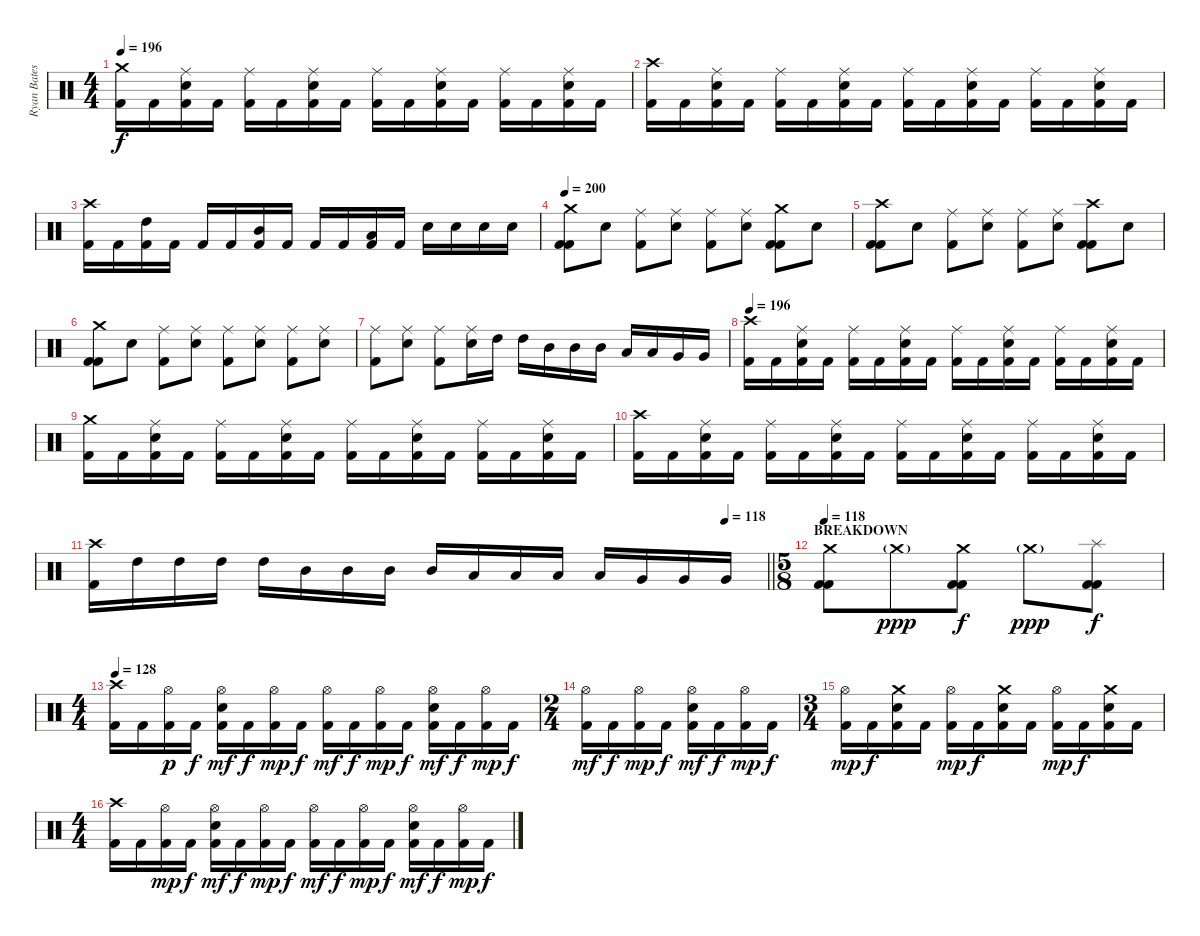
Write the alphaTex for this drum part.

\track ("Ryan Bates" "Ryan Bates") {instrument percussion}
\staff {score}
\articulation defaults
\ts (4 4)
\tempo 196
\clef neutral
\ks c
("Crash medium (hit)" "Kick (hit) 2").16{dy f} "Kick (hit) 2".16 ("Ride (middle)" "Electric Snare (hit)" "Kick (hit) 2").16 "Kick (hit) 2".16 ("Ride (middle)" "Kick (hit) 2").16 "Kick (hit) 2".16 ("Ride (middle)" "Electric Snare (hit)" "Kick (hit) 2").16 "Kick (hit) 2".16 ("Ride (middle)" "Kick (hit) 2").16 "Kick (hit) 2".16 ("Ride (middle)" "Electric Snare (hit)" "Kick (hit) 2").16 "Kick (hit) 2".16 ("Ride (middle)" "Kick (hit) 2").16 "Kick (hit) 2".16 ("Ride (middle)" "Electric Snare (hit)" "Kick (hit) 2").16 "Kick (hit) 2".16 |
("Crash high (hit)" "Kick (hit) 2").16 "Kick (hit) 2".16 ("Ride (middle)" "Electric Snare (hit)" "Kick (hit) 2").16 "Kick (hit) 2".16 ("Ride (middle)" "Kick (hit) 2").16 "Kick (hit) 2".16 ("Ride (middle)" "Electric Snare (hit)" "Kick (hit) 2").16 "Kick (hit) 2".16 ("Ride (middle)" "Kick (hit) 2").16 "Kick (hit) 2".16 ("Ride (middle)" "Electric Snare (hit)" "Kick (hit) 2").16 "Kick (hit) 2".16 ("Ride (middle)" "Kick (hit) 2").16 "Kick (hit) 2".16 ("Ride (middle)" "Electric Snare (hit)" "Kick (hit) 2").16 "Kick (hit) 2".16 |
("Crash high (hit)" "Kick (hit) 2").16 "Kick (hit) 2".16 ("High Tom (hit)" "Kick (hit) 2").16 "Kick (hit) 2".16 "Kick (hit) 2".16 "Kick (hit) 2".16 ("Mid Tom (hit)" "Kick (hit) 2").16 "Kick (hit) 2".16 "Kick (hit) 2".16 "Kick (hit) 2".16 ("Low Tom (hit)" "Kick (hit) 2").16 "Kick (hit) 2".16 "Electric Snare (hit)".16 "Electric Snare (hit)".16 "Electric Snare (hit)".16 "Electric Snare (hit)".16 |
\tempo 200
("Crash medium (hit)" "Kick (hit) 2" "Kick (hit) 2").8 "Electric Snare (hit)".8 ("Ride (middle)" "Kick (hit) 2").8 ("Ride (middle)" "Electric Snare (hit)").8 ("Ride (middle)" "Kick (hit) 2").8 ("Ride (middle)" "Electric Snare (hit)").8 ("Crash medium (hit)" "Kick (hit) 2" "Kick (hit) 2").8 "Electric Snare (hit)".8 |
("Crash high (hit)" "Kick (hit) 2" "Kick (hit) 2").8 "Electric Snare (hit)".8 ("Ride (middle)" "Kick (hit) 2").8 ("Ride (middle)" "Electric Snare (hit)").8 ("Ride (middle)" "Kick (hit) 2").8 ("Ride (middle)" "Electric Snare (hit)").8 ("Crash high (hit)" "Kick (hit) 2" "Kick (hit) 2").8 "Electric Snare (hit)".8 |
("Crash medium (hit)" "Kick (hit) 2" "Kick (hit) 2").8 "Electric Snare (hit)".8 ("Ride (middle)" "Kick (hit) 2").8 ("Ride (middle)" "Electric Snare (hit)").8 ("Ride (middle)" "Kick (hit) 2").8 ("Ride (middle)" "Electric Snare (hit)").8 ("Ride (middle)" "Kick (hit) 2").8 ("Ride (middle)" "Electric Snare (hit)").8 |
("Ride (middle)" "Kick (hit) 2").8 ("Ride (middle)" "Electric Snare (hit)").8 ("Ride (middle)" "Kick (hit) 2").8 ("Ride (middle)" "Electric Snare (hit)").16 "High Tom (hit)".16 "High Tom (hit)".16 "Mid Tom (hit)".16 "Mid Tom (hit)".16 "Mid Tom (hit)".16 "Low Tom (hit)".16 "Low Tom (hit)".16 "Very Low Tom (hit)".16 "Very Low Tom (hit)".16 |
\tempo 196
("Crash high (hit)" "Kick (hit) 2").16 "Kick (hit) 2".16 ("Ride (middle)" "Electric Snare (hit)" "Kick (hit) 2").16 "Kick (hit) 2".16 ("Ride (middle)" "Kick (hit) 2").16 "Kick (hit) 2".16 ("Ride (middle)" "Electric Snare (hit)" "Kick (hit) 2").16 "Kick (hit) 2".16 ("Ride (middle)" "Kick (hit) 2").16 "Kick (hit) 2".16 ("Ride (middle)" "Electric Snare (hit)" "Kick (hit) 2").16 "Kick (hit) 2".16 ("Ride (middle)" "Kick (hit) 2").16 "Kick (hit) 2".16 ("Ride (middle)" "Electric Snare (hit)" "Kick (hit) 2").16 "Kick (hit) 2".16 |
("Crash medium (hit)" "Kick (hit) 2").16 "Kick (hit) 2".16 ("Ride (middle)" "Electric Snare (hit)" "Kick (hit) 2").16 "Kick (hit) 2".16 ("Ride (middle)" "Kick (hit) 2").16 "Kick (hit) 2".16 ("Ride (middle)" "Electric Snare (hit)" "Kick (hit) 2").16 "Kick (hit) 2".16 ("Ride (middle)" "Kick (hit) 2").16 "Kick (hit) 2".16 ("Ride (middle)" "Electric Snare (hit)" "Kick (hit) 2").16 "Kick (hit) 2".16 ("Ride (middle)" "Kick (hit) 2").16 "Kick (hit) 2".16 ("Ride (middle)" "Electric Snare (hit)" "Kick (hit) 2").16 "Kick (hit) 2".16 |
("Crash high (hit)" "Kick (hit) 2").16 "Kick (hit) 2".16 ("Ride (middle)" "Electric Snare (hit)" "Kick (hit) 2").16 "Kick (hit) 2".16 ("Ride (middle)" "Kick (hit) 2").16 "Kick (hit) 2".16 ("Ride (middle)" "Electric Snare (hit)" "Kick (hit) 2").16 "Kick (hit) 2".16 ("Ride (middle)" "Kick (hit) 2").16 "Kick (hit) 2".16 ("Ride (middle)" "Electric Snare (hit)" "Kick (hit) 2").16 "Kick (hit) 2".16 ("Ride (middle)" "Kick (hit) 2").16 "Kick (hit) 2".16 ("Ride (middle)" "Electric Snare (hit)" "Kick (hit) 2").16 "Kick (hit) 2".16 |
\tempo (118 0.9375)
\barLineRight lightlight
("Crash high (hit)" "Kick (hit) 2").16 "High Tom (hit)".16 "High Tom (hit)".16 "High Tom (hit)".16 "High Tom (hit)".16 "Mid Tom (hit)".16 "Mid Tom (hit)".16 "Mid Tom (hit)".16 "Mid Tom (hit)".16 "Low Tom (hit)".16 "Low Tom (hit)".16 "Low Tom (hit)".16 "Low Tom (hit)".16 "Very Low Tom (hit)".16 "Very Low Tom (hit)".16 "Very Low Tom (hit)".16 |
\ts (5 8)
\section ("" "BREAKDOWN")
\tempo 118
("Crash medium (hit)" "Kick (hit) 2" "Kick (hit) 2").8 "Crash medium (hit)"{g}.8{dy ppp} ("Crash medium (hit)" "Kick (hit) 2" "Kick (hit) 2").8{dy f} "Crash medium (hit)"{g}.8{dy ppp} ("Splash (hit)" "Kick (hit) 2" "Kick (hit) 2").8{dy f} |
\ts (4 4)
\tempo 128
("Crash high (hit)" "Kick (hit) 2").16 "Kick (hit) 2".16 ("Hi-Hat (open)" "Kick (hit) 2").16{dy p} "Kick (hit) 2".16{dy f} ("Hi-Hat (open)" "Electric Snare (hit)" "Kick (hit) 2").16{dy mf} "Kick (hit) 2".16{dy f} ("Hi-Hat (open)" "Kick (hit) 2").16{dy mp} "Kick (hit) 2".16{dy f} ("Hi-Hat (open)" "Kick (hit) 2").16{dy mf} "Kick (hit) 2".16{dy f} ("Hi-Hat (open)" "Kick (hit) 2").16{dy mp} "Kick (hit) 2".16{dy f} ("Hi-Hat (open)" "Electric Snare (hit)" "Kick (hit) 2").16{dy mf} "Kick (hit) 2".16{dy f} ("Hi-Hat (open)" "Kick (hit) 2").16{dy mp} "Kick (hit) 2".16{dy f} |
\ts (2 4)
("Hi-Hat (open)" "Kick (hit) 2").16{dy mf} "Kick (hit) 2".16{dy f} ("Hi-Hat (open)" "Kick (hit) 2").16{dy mp} "Kick (hit) 2".16{dy f} ("Hi-Hat (open)" "Electric Snare (hit)" "Kick (hit) 2").16{dy mf} "Kick (hit) 2".16{dy f} ("Hi-Hat (open)" "Kick (hit) 2").16{dy mp} "Kick (hit) 2".16{dy f} |
\ts (3 4)
("Hi-Hat (open)" "Kick (hit) 2").16{dy mp} "Kick (hit) 2".16{dy f} ("Crash medium (hit)" "Electric Snare (hit)" "Kick (hit) 2").16 "Kick (hit) 2".16 ("Hi-Hat (open)" "Kick (hit) 2").16{dy mp} "Kick (hit) 2".16{dy f} ("Crash medium (hit)" "Electric Snare (hit)" "Kick (hit) 2").16 "Kick (hit) 2".16 ("Hi-Hat (open)" "Kick (hit) 2").16{dy mp} "Kick (hit) 2".16{dy f} ("Crash medium (hit)" "Electric Snare (hit)" "Kick (hit) 2").16 "Kick (hit) 2".16 |
\ts (4 4)
("Crash high (hit)" "Kick (hit) 2").16 "Kick (hit) 2".16 ("Hi-Hat (open)" "Kick (hit) 2").16{dy mp} "Kick (hit) 2".16{dy f} ("Hi-Hat (open)" "Electric Snare (hit)" "Kick (hit) 2").16{dy mf} "Kick (hit) 2".16{dy f} ("Hi-Hat (open)" "Kick (hit) 2").16{dy mp} "Kick (hit) 2".16{dy f} ("Hi-Hat (open)" "Kick (hit) 2").16{dy mf} "Kick (hit) 2".16{dy f} ("Hi-Hat (open)" "Kick (hit) 2").16{dy mp} "Kick (hit) 2".16{dy f} ("Hi-Hat (open)" "Electric Snare (hit)" "Kick (hit) 2").16{dy mf} "Kick (hit) 2".16{dy f} ("Hi-Hat (open)" "Kick (hit) 2").16{dy mp} "Kick (hit) 2".16{dy f}
